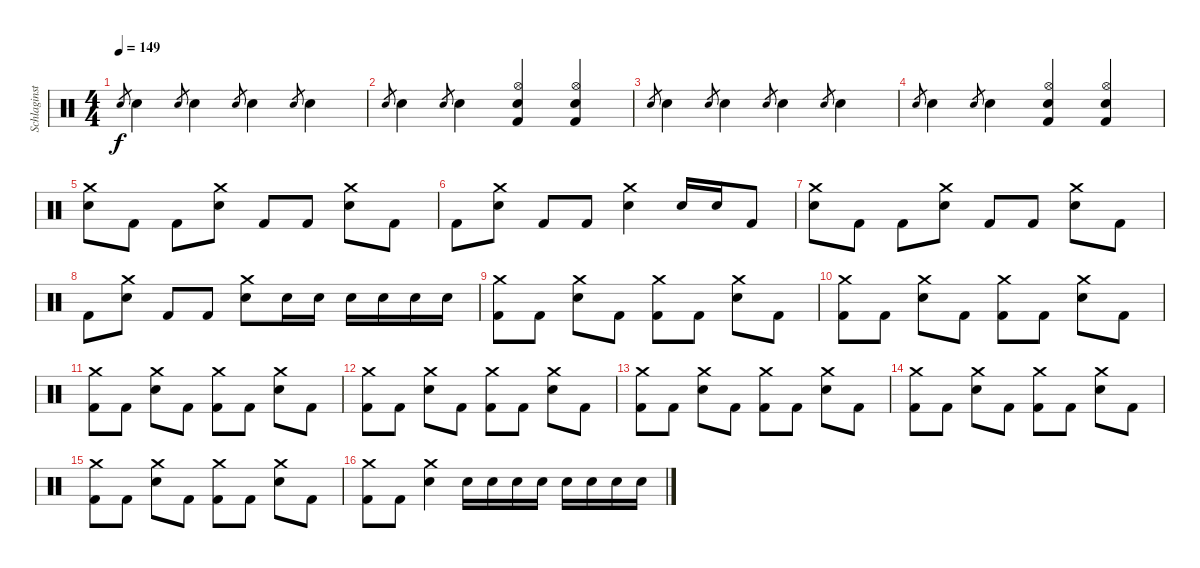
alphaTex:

\track ("Schlaginstrumente - Auswahl" "Schlaginst") {instrument percussion}
\staff {score}
\articulation defaults
\ts (4 4)
\tempo 149
\clef neutral
\ks c "Electric Snare (hit)".8{gr dy f} "Electric Snare (hit)".4 "Electric Snare (hit)".8{gr} "Electric Snare (hit)".4 "Electric Snare (hit)".8{gr} "Electric Snare (hit)".4 "Electric Snare (hit)".8{gr} "Electric Snare (hit)".4
|
"Electric Snare (hit)".8{gr} "Electric Snare (hit)".4 "Electric Snare (hit)".8{gr} "Electric Snare (hit)".4 ("Hi-Hat (open)" "Electric Snare (hit)" "Kick (hit) 2").4 ("Hi-Hat (open)" "Electric Snare (hit)" "Kick (hit) 2").4 |
"Electric Snare (hit)".8{gr} "Electric Snare (hit)".4 "Electric Snare (hit)".8{gr} "Electric Snare (hit)".4 "Electric Snare (hit)".8{gr} "Electric Snare (hit)".4 "Electric Snare (hit)".8{gr} "Electric Snare (hit)".4 |
"Electric Snare (hit)".8{gr} "Electric Snare (hit)".4 "Electric Snare (hit)".8{gr} "Electric Snare (hit)".4 ("Hi-Hat (open)" "Electric Snare (hit)" "Kick (hit) 2").4 ("Hi-Hat (open)" "Electric Snare (hit)" "Kick (hit) 2").4 |
("Crash medium (hit)" "Electric Snare (hit)").8 "Kick (hit) 2".8 "Kick (hit) 2".8 ("Crash medium (hit)" "Electric Snare (hit)").8 "Kick (hit) 2".8 "Kick (hit) 2".8 ("Crash medium (hit)" "Electric Snare (hit)").8 "Kick (hit) 2".8 |
"Kick (hit) 2".8 ("Crash medium (hit)" "Electric Snare (hit)").8 "Kick (hit) 2".8 "Kick (hit) 2".8 ("Crash medium (hit)" "Electric Snare (hit)").4 "Electric Snare (hit)".16 "Electric Snare (hit)".16 "Kick (hit) 2".8 |
("Crash medium (hit)" "Electric Snare (hit)").8 "Kick (hit) 2".8 "Kick (hit) 2".8 ("Crash medium (hit)" "Electric Snare (hit)").8 "Kick (hit) 2".8 "Kick (hit) 2".8 ("Crash medium (hit)" "Electric Snare (hit)").8 "Kick (hit) 2".8 |
"Kick (hit) 2".8 ("Crash medium (hit)" "Electric Snare (hit)").8 "Kick (hit) 2".8 "Kick (hit) 2".8 ("Crash medium (hit)" "Electric Snare (hit)").8 "Electric Snare (hit)".16 "Electric Snare (hit)".16 "Electric Snare (hit)".16 "Electric Snare (hit)".16 "Electric Snare (hit)".16 "Electric Snare (hit)".16 |
("Crash medium (hit)" "Kick (hit) 2").8 "Kick (hit) 2".8 ("Crash medium (hit)" "Electric Snare (hit)").8 "Kick (hit) 2".8 ("Crash medium (hit)" "Kick (hit) 2").8 "Kick (hit) 2".8 ("Crash medium (hit)" "Electric Snare (hit)").8 "Kick (hit) 2".8 |
("Crash medium (hit)" "Kick (hit) 2").8 "Kick (hit) 2".8 ("Crash medium (hit)" "Electric Snare (hit)").8 "Kick (hit) 2".8 ("Crash medium (hit)" "Kick (hit) 2").8 "Kick (hit) 2".8 ("Crash medium (hit)" "Electric Snare (hit)").8 "Kick (hit) 2".8 |
("Crash medium (hit)" "Kick (hit) 2").8 "Kick (hit) 2".8 ("Crash medium (hit)" "Electric Snare (hit)").8 "Kick (hit) 2".8 ("Crash medium (hit)" "Kick (hit) 2").8 "Kick (hit) 2".8 ("Crash medium (hit)" "Electric Snare (hit)").8 "Kick (hit) 2".8 |
("Crash medium (hit)" "Kick (hit) 2").8 "Kick (hit) 2".8 ("Crash medium (hit)" "Electric Snare (hit)").8 "Kick (hit) 2".8 ("Crash medium (hit)" "Kick (hit) 2").8 "Kick (hit) 2".8 ("Crash medium (hit)" "Electric Snare (hit)").8 "Kick (hit) 2".8 |
("Crash medium (hit)" "Kick (hit) 2").8 "Kick (hit) 2".8 ("Crash medium (hit)" "Electric Snare (hit)").8 "Kick (hit) 2".8 ("Crash medium (hit)" "Kick (hit) 2").8 "Kick (hit) 2".8 ("Crash medium (hit)" "Electric Snare (hit)").8 "Kick (hit) 2".8 |
("Crash medium (hit)" "Kick (hit) 2").8 "Kick (hit) 2".8 ("Crash medium (hit)" "Electric Snare (hit)").8 "Kick (hit) 2".8 ("Crash medium (hit)" "Kick (hit) 2").8 "Kick (hit) 2".8 ("Crash medium (hit)" "Electric Snare (hit)").8 "Kick (hit) 2".8 |
("Crash medium (hit)" "Kick (hit) 2").8 "Kick (hit) 2".8 ("Crash medium (hit)" "Electric Snare (hit)").8 "Kick (hit) 2".8 ("Crash medium (hit)" "Kick (hit) 2").8 "Kick (hit) 2".8 ("Crash medium (hit)" "Electric Snare (hit)").8 "Kick (hit) 2".8 |
("Crash medium (hit)" "Kick (hit) 2").8 "Kick (hit) 2".8 ("Crash medium (hit)" "Electric Snare (hit)").4 "Electric Snare (hit)".16 "Electric Snare (hit)".16 "Electric Snare (hit)".16 "Electric Snare (hit)".16 "Electric Snare (hit)".16 "Electric Snare (hit)".16 "Electric Snare (hit)".16 "Electric Snare (hit)".16
